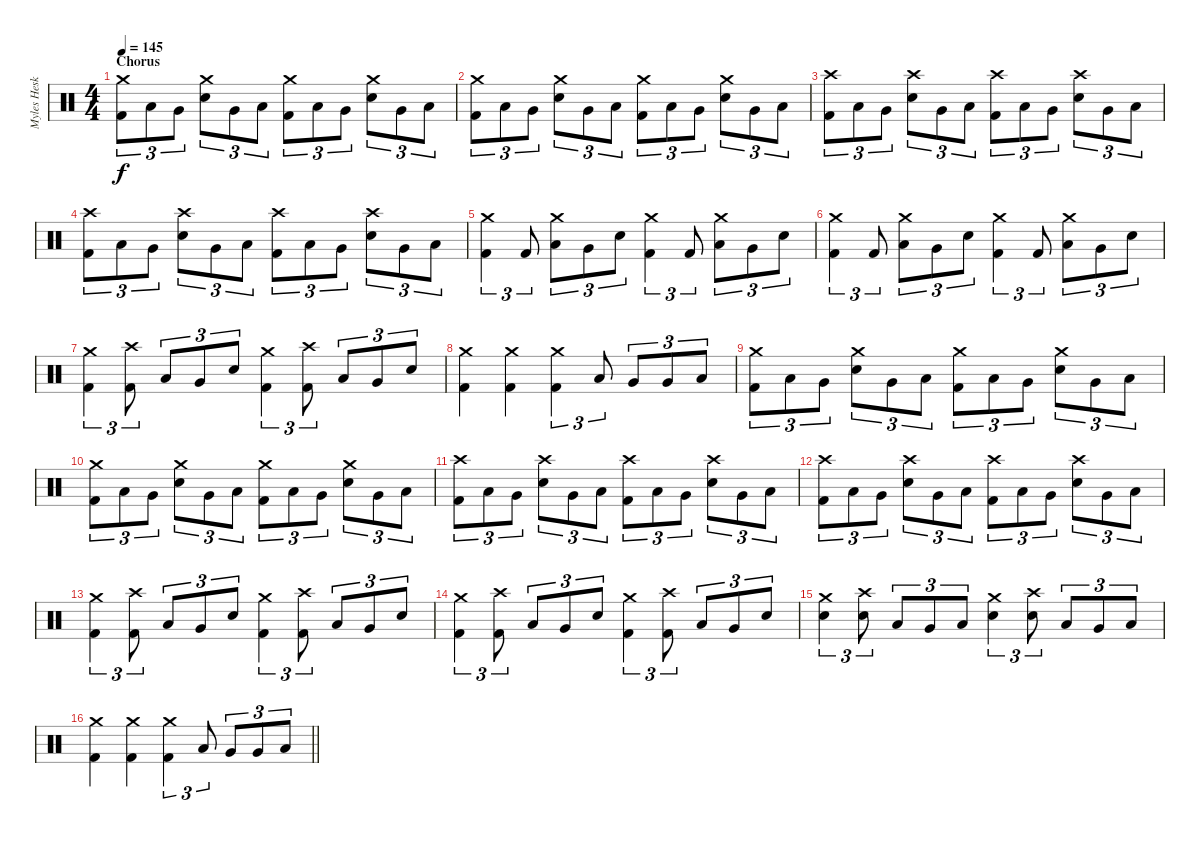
\track ("Myles Heskett" "Myles Hesk") {instrument percussion}
\staff {score}
\articulation defaults
\ts (4 4)
\section ("" "Chorus")
\tempo 145
\clef neutral
\ks c
("Crash medium (hit)" "Kick (hit) 2").8{tu (3 2) dy f} "Low Tom (hit)".8{tu (3 2)} "Very Low Tom (hit)".8{tu (3 2)} ("Crash medium (hit)" "Snare (hit) 2").8{tu (3 2)} "Very Low Tom (hit)".8{tu (3 2)} "Low Tom (hit)".8{tu (3 2)} ("Crash medium (hit)" "Kick (hit) 2").8{tu (3 2)} "Low Tom (hit)".8{tu (3 2)} "Very Low Tom (hit)".8{tu (3 2)} ("Crash medium (hit)" "Snare (hit) 2").8{tu (3 2)} "Very Low Tom (hit)".8{tu (3 2)} "Low Tom (hit)".8{tu (3 2)} |
("Crash medium (hit)" "Kick (hit) 2").8{tu (3 2)} "Low Tom (hit)".8{tu (3 2)} "Very Low Tom (hit)".8{tu (3 2)} ("Crash medium (hit)" "Snare (hit) 2").8{tu (3 2)} "Very Low Tom (hit)".8{tu (3 2)} "Low Tom (hit)".8{tu (3 2)} ("Crash medium (hit)" "Kick (hit) 2").8{tu (3 2)} "Low Tom (hit)".8{tu (3 2)} "Very Low Tom (hit)".8{tu (3 2)} ("Crash medium (hit)" "Snare (hit) 2").8{tu (3 2)} "Very Low Tom (hit)".8{tu (3 2)} "Low Tom (hit)".8{tu (3 2)} |
("Crash high (hit)" "Kick (hit) 2").8{tu (3 2)} "Low Tom (hit)".8{tu (3 2)} "Very Low Tom (hit)".8{tu (3 2)} ("Crash high (hit)" "Snare (hit) 2").8{tu (3 2)} "Very Low Tom (hit)".8{tu (3 2)} "Low Tom (hit)".8{tu (3 2)} ("Crash high (hit)" "Kick (hit) 2").8{tu (3 2)} "Low Tom (hit)".8{tu (3 2)} "Very Low Tom (hit)".8{tu (3 2)} ("Crash high (hit)" "Snare (hit) 2").8{tu (3 2)} "Very Low Tom (hit)".8{tu (3 2)} "Low Tom (hit)".8{tu (3 2)} |
("Crash high (hit)" "Kick (hit) 2").8{tu (3 2)} "Low Tom (hit)".8{tu (3 2)} "Very Low Tom (hit)".8{tu (3 2)} ("Crash high (hit)" "Snare (hit) 2").8{tu (3 2)} "Very Low Tom (hit)".8{tu (3 2)} "Low Tom (hit)".8{tu (3 2)} ("Crash high (hit)" "Kick (hit) 2").8{tu (3 2)} "Low Tom (hit)".8{tu (3 2)} "Very Low Tom (hit)".8{tu (3 2)} ("Crash high (hit)" "Snare (hit) 2").8{tu (3 2)} "Very Low Tom (hit)".8{tu (3 2)} "Low Tom (hit)".8{tu (3 2)} |
("Crash medium (hit)" "Kick (hit) 2").4{tu (3 2)} "Kick (hit) 2".8{tu (3 2)} ("Crash medium (hit)" "Low Tom (hit)").8{tu (3 2)} "Very Low Tom (hit)".8{tu (3 2)} "Snare (hit) 2".8{tu (3 2)} ("Crash medium (hit)" "Kick (hit) 2").4{tu (3 2)} "Kick (hit) 2".8{tu (3 2)} ("Crash medium (hit)" "Low Tom (hit)").8{tu (3 2)} "Very Low Tom (hit)".8{tu (3 2)} "Snare (hit) 2".8{tu (3 2)} |
("Crash medium (hit)" "Kick (hit) 2").4{tu (3 2)} "Kick (hit) 2".8{tu (3 2)} ("Crash medium (hit)" "Low Tom (hit)").8{tu (3 2)} "Very Low Tom (hit)".8{tu (3 2)} "Snare (hit) 2".8{tu (3 2)} ("Crash medium (hit)" "Kick (hit) 2").4{tu (3 2)} "Kick (hit) 2".8{tu (3 2)} ("Crash medium (hit)" "Low Tom (hit)").8{tu (3 2)} "Very Low Tom (hit)".8{tu (3 2)} "Snare (hit) 2".8{tu (3 2)} |
("Crash medium (hit)" "Kick (hit) 2").4{tu (3 2)} ("Crash high (hit)" "Kick (hit) 2").8{tu (3 2)} "Low Tom (hit)".8{tu (3 2)} "Very Low Tom (hit)".8{tu (3 2)} "Snare (hit) 2".8{tu (3 2)} ("Crash medium (hit)" "Kick (hit) 2").4{tu (3 2)} ("Crash high (hit)" "Kick (hit) 2").8{tu (3 2)} "Low Tom (hit)".8{tu (3 2)} "Very Low Tom (hit)".8{tu (3 2)} "Snare (hit) 2".8{tu (3 2)} |
("Crash medium (hit)" "Kick (hit) 2").4 ("Crash medium (hit)" "Kick (hit) 2").4 ("Crash medium (hit)" "Kick (hit) 2").4{tu (3 2)} "Low Tom (hit)".8{tu (3 2)} "Very Low Tom (hit)".8{tu (3 2)} "Very Low Tom (hit)".8{tu (3 2)} "Low Tom (hit)".8{tu (3 2)} |
("Crash medium (hit)" "Kick (hit) 2").8{tu (3 2)} "Low Tom (hit)".8{tu (3 2)} "Very Low Tom (hit)".8{tu (3 2)} ("Crash medium (hit)" "Snare (hit) 2").8{tu (3 2)} "Very Low Tom (hit)".8{tu (3 2)} "Low Tom (hit)".8{tu (3 2)} ("Crash medium (hit)" "Kick (hit) 2").8{tu (3 2)} "Low Tom (hit)".8{tu (3 2)} "Very Low Tom (hit)".8{tu (3 2)} ("Crash medium (hit)" "Snare (hit) 2").8{tu (3 2)} "Very Low Tom (hit)".8{tu (3 2)} "Low Tom (hit)".8{tu (3 2)} |
("Crash medium (hit)" "Kick (hit) 2").8{tu (3 2)} "Low Tom (hit)".8{tu (3 2)} "Very Low Tom (hit)".8{tu (3 2)} ("Crash medium (hit)" "Snare (hit) 2").8{tu (3 2)} "Very Low Tom (hit)".8{tu (3 2)} "Low Tom (hit)".8{tu (3 2)} ("Crash medium (hit)" "Kick (hit) 2").8{tu (3 2)} "Low Tom (hit)".8{tu (3 2)} "Very Low Tom (hit)".8{tu (3 2)} ("Crash medium (hit)" "Snare (hit) 2").8{tu (3 2)} "Very Low Tom (hit)".8{tu (3 2)} "Low Tom (hit)".8{tu (3 2)} |
("Crash high (hit)" "Kick (hit) 2").8{tu (3 2)} "Low Tom (hit)".8{tu (3 2)} "Very Low Tom (hit)".8{tu (3 2)} ("Crash high (hit)" "Snare (hit) 2").8{tu (3 2)} "Very Low Tom (hit)".8{tu (3 2)} "Low Tom (hit)".8{tu (3 2)} ("Crash high (hit)" "Kick (hit) 2").8{tu (3 2)} "Low Tom (hit)".8{tu (3 2)} "Very Low Tom (hit)".8{tu (3 2)} ("Crash high (hit)" "Snare (hit) 2").8{tu (3 2)} "Very Low Tom (hit)".8{tu (3 2)} "Low Tom (hit)".8{tu (3 2)} |
("Crash high (hit)" "Kick (hit) 2").8{tu (3 2)} "Low Tom (hit)".8{tu (3 2)} "Very Low Tom (hit)".8{tu (3 2)} ("Crash high (hit)" "Snare (hit) 2").8{tu (3 2)} "Very Low Tom (hit)".8{tu (3 2)} "Low Tom (hit)".8{tu (3 2)} ("Crash high (hit)" "Kick (hit) 2").8{tu (3 2)} "Low Tom (hit)".8{tu (3 2)} "Very Low Tom (hit)".8{tu (3 2)} ("Crash high (hit)" "Snare (hit) 2").8{tu (3 2)} "Very Low Tom (hit)".8{tu (3 2)} "Low Tom (hit)".8{tu (3 2)} |
("Crash medium (hit)" "Kick (hit) 2").4{tu (3 2)} ("Crash high (hit)" "Kick (hit) 2").8{tu (3 2)} "Low Tom (hit)".8{tu (3 2)} "Very Low Tom (hit)".8{tu (3 2)} "Snare (hit) 2".8{tu (3 2)} ("Crash medium (hit)" "Kick (hit) 2").4{tu (3 2)} ("Crash high (hit)" "Kick (hit) 2").8{tu (3 2)} "Low Tom (hit)".8{tu (3 2)} "Very Low Tom (hit)".8{tu (3 2)} "Snare (hit) 2".8{tu (3 2)} |
("Crash medium (hit)" "Kick (hit) 2").4{tu (3 2)} ("Crash high (hit)" "Kick (hit) 2").8{tu (3 2)} "Low Tom (hit)".8{tu (3 2)} "Very Low Tom (hit)".8{tu (3 2)} "Snare (hit) 2".8{tu (3 2)} ("Crash medium (hit)" "Kick (hit) 2").4{tu (3 2)} ("Crash high (hit)" "Kick (hit) 2").8{tu (3 2)} "Low Tom (hit)".8{tu (3 2)} "Very Low Tom (hit)".8{tu (3 2)} "Snare (hit) 2".8{tu (3 2)} |
("Crash medium (hit)" "Snare (hit) 2").4{tu (3 2)} ("Crash high (hit)" "Snare (hit) 2").8{tu (3 2)} "Low Tom (hit)".8{tu (3 2)} "Very Low Tom (hit)".8{tu (3 2)} "Low Floor Tom (hit)".8{tu (3 2)} ("Crash medium (hit)" "Snare (hit) 2").4{tu (3 2)} ("Crash high (hit)" "Snare (hit) 2").8{tu (3 2)} "Low Tom (hit)".8{tu (3 2)} "Very Low Tom (hit)".8{tu (3 2)} "Low Floor Tom (hit)".8{tu (3 2)} |
\barLineRight lightlight
("Crash medium (hit)" "Kick (hit) 2").4 ("Crash medium (hit)" "Kick (hit) 2").4 ("Crash medium (hit)" "Kick (hit) 2").4{tu (3 2)} "Low Tom (hit)".8{tu (3 2)} "Very Low Tom (hit)".8{tu (3 2)} "Very Low Tom (hit)".8{tu (3 2)} "Low Tom (hit)".8{tu (3 2)}
